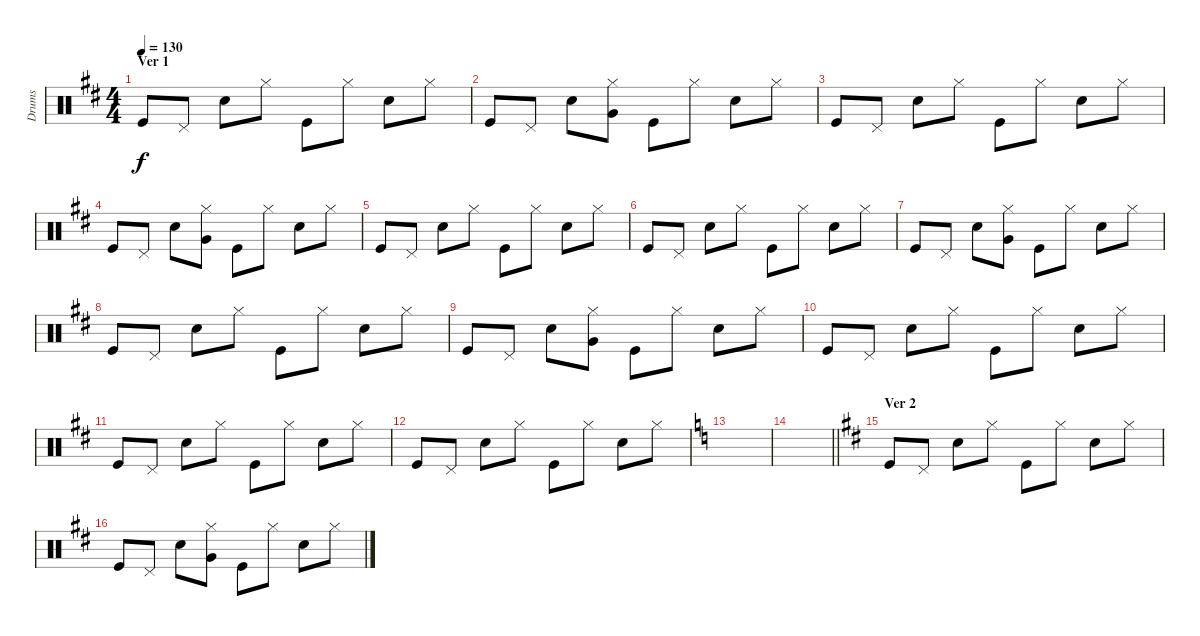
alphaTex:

\track ("Drums" "Drums") {instrument percussion}
\staff {score}
\articulation defaults
\ts (4 4)
\section ("" "Ver 1")
\tempo 130
\clef neutral
\ks d "Kick (hit)".8{dy f} "Pedal Hi-Hat (hit)".8 "Snare (hit) 2".8 "Hi-Hat (closed)".8 "Kick (hit)".8 "Hi-Hat (closed)".8 "Snare (hit) 2".8 "Hi-Hat (closed)".8
|
"Kick (hit)".8 "Pedal Hi-Hat (hit)".8 "Snare (hit) 2".8 ("Hi-Hat (closed)" "Very Low Tom (hit)").8 "Kick (hit)".8 "Hi-Hat (closed)".8 "Snare (hit) 2".8 "Hi-Hat (closed)".8 |
"Kick (hit)".8 "Pedal Hi-Hat (hit)".8 "Snare (hit) 2".8 "Hi-Hat (closed)".8 "Kick (hit)".8 "Hi-Hat (closed)".8 "Snare (hit) 2".8 "Hi-Hat (closed)".8 |
"Kick (hit)".8 "Pedal Hi-Hat (hit)".8 "Snare (hit) 2".8 ("Hi-Hat (closed)" "Very Low Tom (hit)").8 "Kick (hit)".8 "Hi-Hat (closed)".8 "Snare (hit) 2".8 "Hi-Hat (closed)".8 |
"Kick (hit)".8 "Pedal Hi-Hat (hit)".8 "Snare (hit) 2".8 "Hi-Hat (closed)".8 "Kick (hit)".8 "Hi-Hat (closed)".8 "Snare (hit) 2".8 "Hi-Hat (closed)".8 |
"Kick (hit)".8 "Pedal Hi-Hat (hit)".8 "Snare (hit) 2".8 "Hi-Hat (closed)".8 "Kick (hit)".8 "Hi-Hat (closed)".8 "Snare (hit) 2".8 "Hi-Hat (closed)".8 |
"Kick (hit)".8 "Pedal Hi-Hat (hit)".8 "Snare (hit) 2".8 ("Hi-Hat (closed)" "Very Low Tom (hit)").8 "Kick (hit)".8 "Hi-Hat (closed)".8 "Snare (hit) 2".8 "Hi-Hat (closed)".8 |
"Kick (hit)".8 "Pedal Hi-Hat (hit)".8 "Snare (hit) 2".8 "Hi-Hat (closed)".8 "Kick (hit)".8 "Hi-Hat (closed)".8 "Snare (hit) 2".8 "Hi-Hat (closed)".8 |
"Kick (hit)".8 "Pedal Hi-Hat (hit)".8 "Snare (hit) 2".8 ("Hi-Hat (closed)" "Very Low Tom (hit)").8 "Kick (hit)".8 "Hi-Hat (closed)".8 "Snare (hit) 2".8 "Hi-Hat (closed)".8 |
"Kick (hit)".8 "Pedal Hi-Hat (hit)".8 "Snare (hit) 2".8 "Hi-Hat (closed)".8 "Kick (hit)".8 "Hi-Hat (closed)".8 "Snare (hit) 2".8 "Hi-Hat (closed)".8 |
"Kick (hit)".8 "Pedal Hi-Hat (hit)".8 "Snare (hit) 2".8 "Hi-Hat (closed)".8 "Kick (hit)".8 "Hi-Hat (closed)".8 "Snare (hit) 2".8 "Hi-Hat (closed)".8 |
"Kick (hit)".8 "Pedal Hi-Hat (hit)".8 "Snare (hit) 2".8 "Hi-Hat (closed)".8 "Kick (hit)".8 "Hi-Hat (closed)".8 "Snare (hit) 2".8 "Hi-Hat (closed)".8 |
\ks c
|
\barLineRight lightlight
|
\section ("" "Ver 2")
\ks d "Kick (hit)".8 "Pedal Hi-Hat (hit)".8 "Snare (hit) 2".8 "Hi-Hat (closed)".8 "Kick (hit)".8 "Hi-Hat (closed)".8 "Snare (hit) 2".8 "Hi-Hat (closed)".8
|
"Kick (hit)".8 "Pedal Hi-Hat (hit)".8 "Snare (hit) 2".8 ("Hi-Hat (closed)" "Very Low Tom (hit)").8 "Kick (hit)".8 "Hi-Hat (closed)".8 "Snare (hit) 2".8 "Hi-Hat (closed)".8
